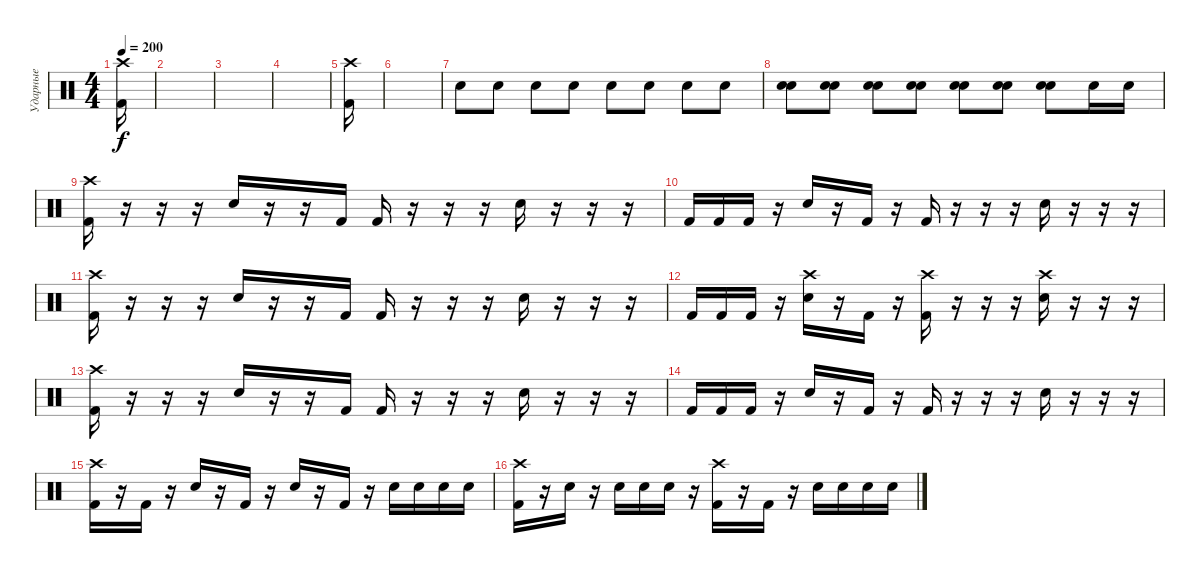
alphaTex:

\track ("Ударные" "Ударные") {solo instrument percussion}
\staff {score}
\articulation defaults
\ts (4 4)
\tempo 200
\clef neutral
\ks c
("Crash high (hit)" "Kick (hit) 2").16{dy f} |
|
|
|
("Crash high (hit)" "Kick (hit) 2").16 |
|
"Electric Snare (hit)".8 "Electric Snare (hit)".8 "Electric Snare (hit)".8 "Electric Snare (hit)".8 "Electric Snare (hit)".8 "Electric Snare (hit)".8 "Electric Snare (hit)".8 "Electric Snare (hit)".8 |
("Electric Snare (hit)" "Electric Snare (hit)").8 ("Electric Snare (hit)" "Electric Snare (hit)").8 ("Electric Snare (hit)" "Electric Snare (hit)").8 ("Electric Snare (hit)" "Electric Snare (hit)").8 ("Electric Snare (hit)" "Electric Snare (hit)").8 ("Electric Snare (hit)" "Electric Snare (hit)").8 ("Electric Snare (hit)" "Electric Snare (hit)").8 "Electric Snare (hit)".16 "Electric Snare (hit)".16 |
("Crash high (hit)" "Kick (hit) 2").16 r.16 r.16 r.16 "Electric Snare (hit)".16 r.16 r.16 "Kick (hit) 2".16 "Kick (hit) 2".16 r.16 r.16 r.16 "Electric Snare (hit)".16 r.16 r.16 r.16 |
"Kick (hit) 2".16 "Kick (hit) 2".16 "Kick (hit) 2".16 r.16 "Electric Snare (hit)".16 r.16 "Kick (hit) 2".16 r.16 "Kick (hit) 2".16 r.16 r.16 r.16 "Electric Snare (hit)".16 r.16 r.16 r.16 |
("Crash high (hit)" "Kick (hit) 2").16 r.16 r.16 r.16 "Electric Snare (hit)".16 r.16 r.16 "Kick (hit) 2".16 "Kick (hit) 2".16 r.16 r.16 r.16 "Electric Snare (hit)".16 r.16 r.16 r.16 |
"Kick (hit) 2".16 "Kick (hit) 2".16 "Kick (hit) 2".16 r.16 ("Crash high (hit)" "Electric Snare (hit)").16 r.16 "Kick (hit) 2".16 r.16 ("Crash high (hit)" "Kick (hit) 2").16 r.16 r.16 r.16 ("Crash high (hit)" "Electric Snare (hit)").16 r.16 r.16 r.16 |
("Crash high (hit)" "Kick (hit) 2").16 r.16 r.16 r.16 "Electric Snare (hit)".16 r.16 r.16 "Kick (hit) 2".16 "Kick (hit) 2".16 r.16 r.16 r.16 "Electric Snare (hit)".16 r.16 r.16 r.16 |
"Kick (hit) 2".16 "Kick (hit) 2".16 "Kick (hit) 2".16 r.16 "Electric Snare (hit)".16 r.16 "Kick (hit) 2".16 r.16 "Kick (hit) 2".16 r.16 r.16 r.16 "Electric Snare (hit)".16 r.16 r.16 r.16 |
("Crash high (hit)" "Kick (hit) 2").16 r.16 "Kick (hit) 2".16 r.16 "Electric Snare (hit)".16 r.16 "Kick (hit) 2".16 r.16 "Electric Snare (hit)".16 r.16 "Kick (hit) 2".16 r.16 "Electric Snare (hit)".16 "Electric Snare (hit)".16 "Electric Snare (hit)".16 "Electric Snare (hit)".16 |
("Crash high (hit)" "Kick (hit) 2").16 r.16 "Electric Snare (hit)".16 r.16 "Electric Snare (hit)".16 "Electric Snare (hit)".16 "Electric Snare (hit)".16 r.16 ("Crash high (hit)" "Kick (hit) 2").16 r.16 "Kick (hit) 2".16 r.16 "Electric Snare (hit)".16 "Electric Snare (hit)".16 "Electric Snare (hit)".16 "Electric Snare (hit)".16
